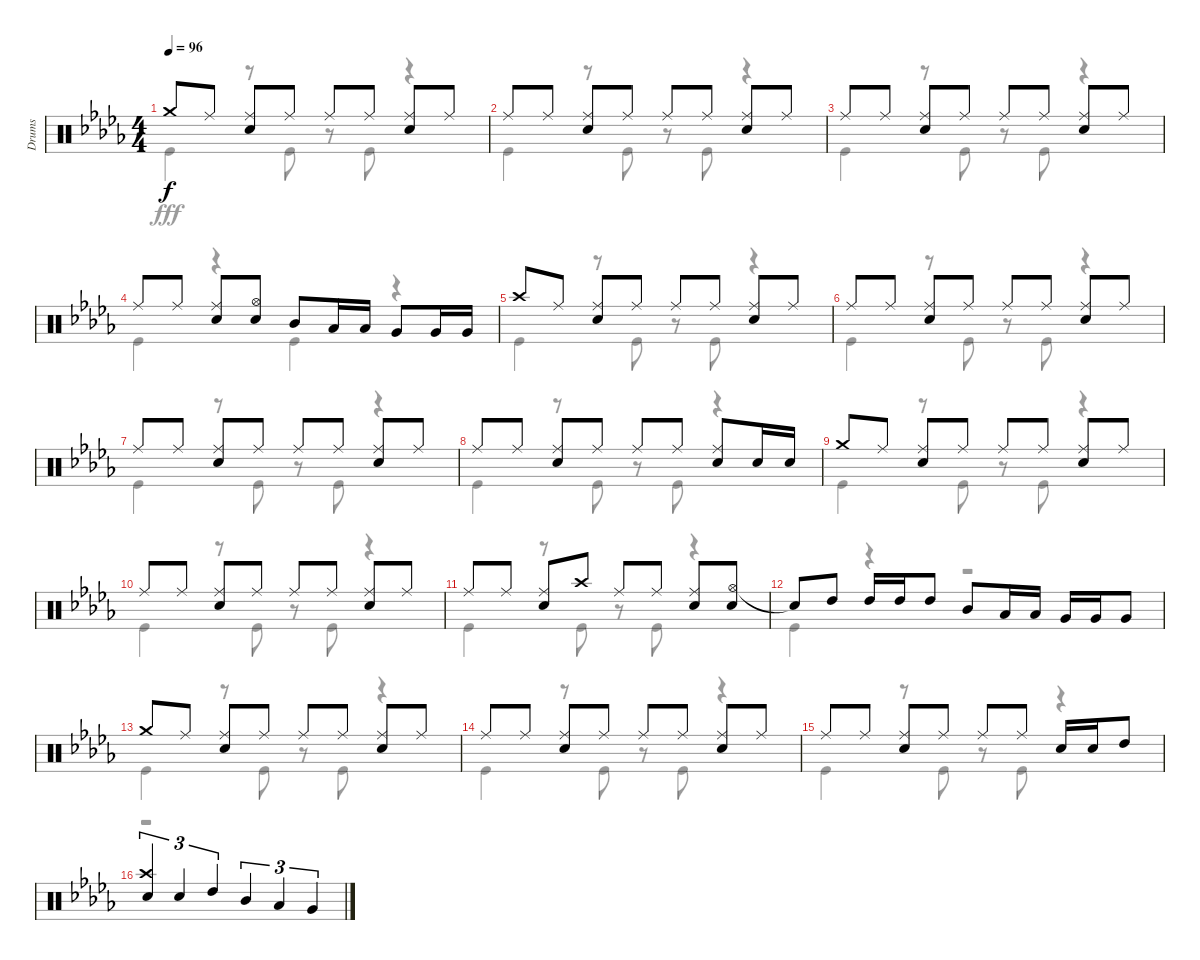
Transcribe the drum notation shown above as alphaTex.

\track ("Drums" "Drums") {instrument percussion}
\staff {score}
\articulation defaults
\voice
\ts (4 4)
\tempo 96
\clef neutral
\ks db "Crash medium (hit)".8{dy f} "Ride (middle)".8
("Ride (middle)" "Snare (hit) 2").8 "Ride (middle)".8 "Ride (middle)".8 "Ride (middle)".8 ("Ride (middle)" "Snare (hit) 2").8 "Ride (middle)".8 |
"Ride (middle)".8 "Ride (middle)".8 ("Ride (middle)" "Snare (hit) 2").8 "Ride (middle)".8 "Ride (middle)".8 "Ride (middle)".8 ("Ride (middle)" "Snare (hit) 2").8 "Ride (middle)".8 |
"Ride (middle)".8 "Ride (middle)".8 ("Ride (middle)" "Snare (hit) 2").8 "Ride (middle)".8 "Ride (middle)".8 "Ride (middle)".8 ("Ride (middle)" "Snare (hit) 2").8 "Ride (middle)".8 |
"Ride (middle)".8 "Ride (middle)".8 ("Ride (middle)" "Snare (hit) 2").8 ("Hi-Hat (open)" "Snare (hit) 2").8 "Mid Tom (hit)".8 "Low Tom (hit)".16 "Low Tom (hit)".16 "Very Low Tom (hit)".8 "Very Low Tom (hit)".16 "Very Low Tom (hit)".16 |
"Crash high (hit)".8 "Ride (middle)".8 ("Ride (middle)" "Snare (hit) 2").8 "Ride (middle)".8 "Ride (middle)".8 "Ride (middle)".8 ("Ride (middle)" "Snare (hit) 2").8 "Ride (middle)".8 |
"Ride (middle)".8 "Ride (middle)".8 ("Ride (middle)" "Snare (hit) 2").8 "Ride (middle)".8 "Ride (middle)".8 "Ride (middle)".8 ("Ride (middle)" "Snare (hit) 2").8 "Ride (middle)".8 |
"Ride (middle)".8 "Ride (middle)".8 ("Ride (middle)" "Snare (hit) 2").8 "Ride (middle)".8 "Ride (middle)".8 "Ride (middle)".8 ("Ride (middle)" "Snare (hit) 2").8 "Ride (middle)".8 |
"Ride (middle)".8 "Ride (middle)".8 ("Ride (middle)" "Snare (hit) 2").8 "Ride (middle)".8 "Ride (middle)".8 "Ride (middle)".8 ("Ride (middle)" "Snare (hit) 2").8 "Snare (hit) 2".16 "Snare (hit) 2".16 |
"Crash medium (hit)".8 "Ride (middle)".8 ("Ride (middle)" "Snare (hit) 2").8 "Ride (middle)".8 "Ride (middle)".8 "Ride (middle)".8 ("Ride (middle)" "Snare (hit) 2").8 "Ride (middle)".8 |
"Ride (middle)".8 "Ride (middle)".8 ("Ride (middle)" "Snare (hit) 2").8 "Ride (middle)".8 "Ride (middle)".8 "Ride (middle)".8 ("Ride (middle)" "Snare (hit) 2").8 "Ride (middle)".8 |
"Ride (middle)".8 "Ride (middle)".8 ("Ride (middle)" "Snare (hit) 2").8 "Crash high (hit)".8 "Ride (middle)".8 "Ride (middle)".8 ("Ride (middle)" "Snare (hit) 2").8 ("Hi-Hat (open)" "Snare (hit) 2").8 |
"Snare (hit)"{t}.8 "High Tom (hit)".8 "High Tom (hit)".16 "High Tom (hit)".16 "High Tom (hit)".8 "Mid Tom (hit)".8 "Low Tom (hit)".16 "Low Tom (hit)".16 "Very Low Tom (hit)".16 "Very Low Tom (hit)".16 "Very Low Tom (hit)".8 |
"Crash medium (hit)".8 "Ride (middle)".8 ("Ride (middle)" "Snare (hit) 2").8 "Ride (middle)".8 "Ride (middle)".8 "Ride (middle)".8 ("Ride (middle)" "Snare (hit) 2").8 "Ride (middle)".8 |
"Ride (middle)".8 "Ride (middle)".8 ("Ride (middle)" "Snare (hit) 2").8 "Ride (middle)".8 "Ride (middle)".8 "Ride (middle)".8 ("Ride (middle)" "Snare (hit) 2").8 "Ride (middle)".8 |
"Ride (middle)".8 "Ride (middle)".8 ("Ride (middle)" "Snare (hit) 2").8 "Ride (middle)".8 "Ride (middle)".8 "Ride (middle)".8 "Snare (hit) 2".16 "Snare (hit) 2".16 "High Tom (hit)".8 |
("Crash high (hit)" "Snare (hit) 2").4{tu (3 2)} "Snare (hit) 2".4{tu (3 2)} "High Tom (hit)".4{tu (3 2)} "Mid Tom (hit)".4{tu (3 2)} "Low Tom (hit)".4{tu (3 2)} "Very Low Tom (hit)".4{tu (3 2)}
\voice
\clef neutral
\ottava regular
\simile none
\ks db "Kick (hit)".4{dy fff}
r.8 "Kick (hit)".8 r.8 "Kick (hit)".8 r.4 |
"Kick (hit)".4 r.8 "Kick (hit)".8 r.8 "Kick (hit)".8 r.4 |
"Kick (hit)".4 r.8 "Kick (hit)".8 r.8 "Kick (hit)".8 r.4 |
"Kick (hit)".4 r.4 "Kick (hit)".4 r.4 |
"Kick (hit)".4 r.8 "Kick (hit)".8 r.8 "Kick (hit)".8 r.4 |
"Kick (hit)".4 r.8 "Kick (hit)".8 r.8 "Kick (hit)".8 r.4 |
"Kick (hit)".4 r.8 "Kick (hit)".8 r.8 "Kick (hit)".8 r.4 |
"Kick (hit)".4 r.8 "Kick (hit)".8 r.8 "Kick (hit)".8 r.4 |
"Kick (hit)".4 r.8 "Kick (hit)".8 r.8 "Kick (hit)".8 r.4 |
"Kick (hit)".4 r.8 "Kick (hit)".8 r.8 "Kick (hit)".8 r.4 |
"Kick (hit)".4 r.8 "Kick (hit)".8 r.8 "Kick (hit)".8 r.4 |
"Kick (hit)".4 r.4 r.2 |
"Kick (hit)".4 r.8 "Kick (hit)".8 r.8 "Kick (hit)".8 r.4 |
"Kick (hit)".4 r.8 "Kick (hit)".8 r.8 "Kick (hit)".8 r.4 |
"Kick (hit)".4 r.8 "Kick (hit)".8 r.8 "Kick (hit)".8 r.4 |
r.1
